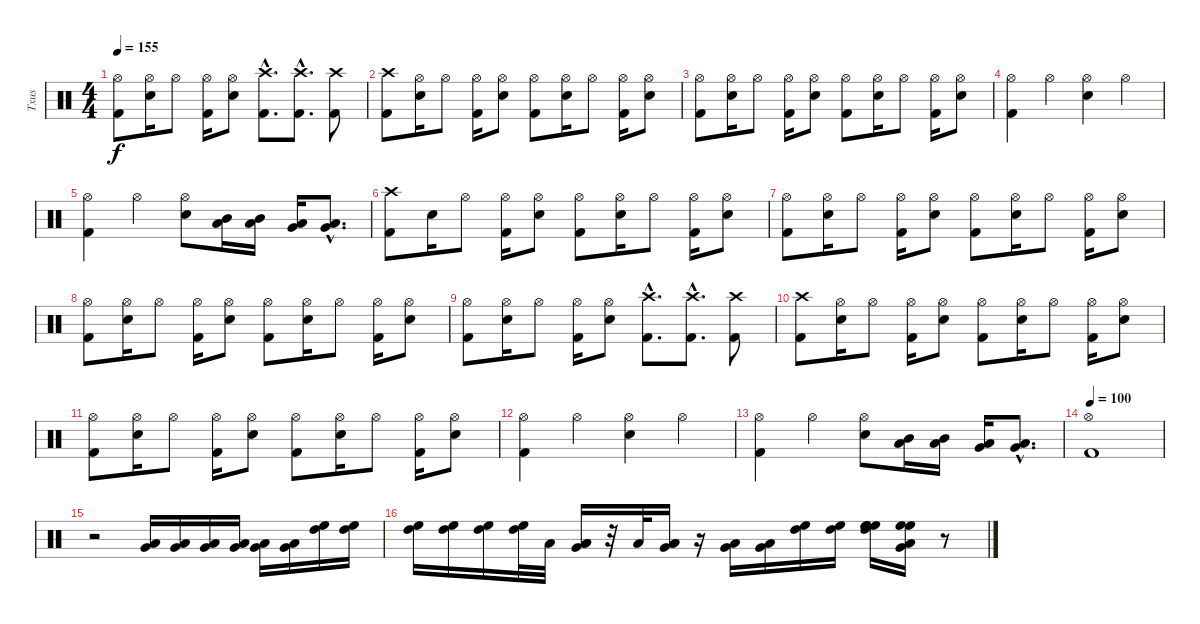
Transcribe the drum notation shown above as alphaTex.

\track ("Txus" "Txus") {instrument percussion}
\staff {score}
\articulation defaults
\ts (4 4)
\tempo 155
\clef neutral
\ks c
("Kick (hit) 2" "Hi-Hat (open)").8{dy f} ("Snare (hit) 2" "Hi-Hat (open)").16 "Hi-Hat (open)".8 ("Kick (hit) 2" "Hi-Hat (open)").16 ("Snare (hit) 2" "Hi-Hat (open)").8 ("Kick (hit) 2"{hac} "Crash high (hit)"{hac}).8{d} ("Kick (hit) 2"{hac} "Crash high (hit)"{hac}).8{d} ("Kick (hit) 2" "Crash high (hit)").8 |
("Kick (hit) 2" "Crash high (hit)").8 ("Snare (hit) 2" "Hi-Hat (open)").16 "Hi-Hat (open)".8 ("Kick (hit) 2" "Hi-Hat (open)").16 ("Snare (hit) 2" "Hi-Hat (open)").8 ("Kick (hit) 2" "Hi-Hat (open)").8 ("Snare (hit) 2" "Hi-Hat (open)").16 "Hi-Hat (open)".8 ("Kick (hit) 2" "Hi-Hat (open)").16 ("Snare (hit) 2" "Hi-Hat (open)").8 |
("Kick (hit) 2" "Hi-Hat (open)").8 ("Snare (hit) 2" "Hi-Hat (open)").16 "Hi-Hat (open)".8 ("Kick (hit) 2" "Hi-Hat (open)").16 ("Snare (hit) 2" "Hi-Hat (open)").8 ("Kick (hit) 2" "Hi-Hat (open)").8 ("Snare (hit) 2" "Hi-Hat (open)").16 "Hi-Hat (open)".8 ("Kick (hit) 2" "Hi-Hat (open)").16 ("Snare (hit) 2" "Hi-Hat (open)").8 |
("Kick (hit) 2" "Hi-Hat (open)").4 "Hi-Hat (open)".4 ("Snare (hit) 2" "Hi-Hat (open)").4 "Hi-Hat (open)".4 |
("Kick (hit) 2" "Hi-Hat (open)").4 "Hi-Hat (open)".4 ("Snare (hit) 2" "Hi-Hat (open)").8 ("Low Tom (hit)" "Mid Tom (hit)").16 ("Mid Tom (hit)" "Low Tom (hit)").16 ("Low Tom (hit)" "Very Low Tom (hit)").16 ("Very Low Tom (hit)"{hac} "Low Floor Tom (hit)"{hac}).8{d} |
("Kick (hit) 2" "Crash high (hit)").8 "Snare (hit) 2".16 "Hi-Hat (open)".8 ("Kick (hit) 2" "Hi-Hat (open)").16 ("Snare (hit) 2" "Hi-Hat (open)").8 ("Kick (hit) 2" "Hi-Hat (open)").8 ("Snare (hit) 2" "Hi-Hat (open)").16 "Hi-Hat (open)".8 ("Kick (hit) 2" "Hi-Hat (open)").16 ("Snare (hit) 2" "Hi-Hat (open)").8 |
("Kick (hit) 2" "Hi-Hat (open)").8 ("Snare (hit) 2" "Hi-Hat (open)").16 "Hi-Hat (open)".8 ("Kick (hit) 2" "Hi-Hat (open)").16 ("Snare (hit) 2" "Hi-Hat (open)").8 ("Kick (hit) 2" "Hi-Hat (open)").8 ("Snare (hit) 2" "Hi-Hat (open)").16 "Hi-Hat (open)".8 ("Kick (hit) 2" "Hi-Hat (open)").16 ("Snare (hit) 2" "Hi-Hat (open)").8 |
("Kick (hit) 2" "Hi-Hat (open)").8 ("Snare (hit) 2" "Hi-Hat (open)").16 "Hi-Hat (open)".8 ("Kick (hit) 2" "Hi-Hat (open)").16 ("Snare (hit) 2" "Hi-Hat (open)").8 ("Kick (hit) 2" "Hi-Hat (open)").8 ("Snare (hit) 2" "Hi-Hat (open)").16 "Hi-Hat (open)".8 ("Kick (hit) 2" "Hi-Hat (open)").16 ("Snare (hit) 2" "Hi-Hat (open)").8 |
("Kick (hit) 2" "Hi-Hat (open)").8 ("Snare (hit) 2" "Hi-Hat (open)").16 "Hi-Hat (open)".8 ("Kick (hit) 2" "Hi-Hat (open)").16 ("Snare (hit) 2" "Hi-Hat (open)").8 ("Kick (hit) 2"{hac} "Crash high (hit)"{hac}).8{d} ("Kick (hit) 2"{hac} "Crash high (hit)"{hac}).8{d} ("Kick (hit) 2" "Crash high (hit)").8 |
("Kick (hit) 2" "Crash high (hit)").8 ("Snare (hit) 2" "Hi-Hat (open)").16 "Hi-Hat (open)".8 ("Kick (hit) 2" "Hi-Hat (open)").16 ("Snare (hit) 2" "Hi-Hat (open)").8 ("Kick (hit) 2" "Hi-Hat (open)").8 ("Snare (hit) 2" "Hi-Hat (open)").16 "Hi-Hat (open)".8 ("Kick (hit) 2" "Hi-Hat (open)").16 ("Snare (hit) 2" "Hi-Hat (open)").8 |
("Kick (hit) 2" "Hi-Hat (open)").8 ("Snare (hit) 2" "Hi-Hat (open)").16 "Hi-Hat (open)".8 ("Kick (hit) 2" "Hi-Hat (open)").16 ("Snare (hit) 2" "Hi-Hat (open)").8 ("Kick (hit) 2" "Hi-Hat (open)").8 ("Snare (hit) 2" "Hi-Hat (open)").16 "Hi-Hat (open)".8 ("Kick (hit) 2" "Hi-Hat (open)").16 ("Snare (hit) 2" "Hi-Hat (open)").8 |
("Kick (hit) 2" "Hi-Hat (open)").4 "Hi-Hat (open)".4 ("Snare (hit) 2" "Hi-Hat (open)").4 "Hi-Hat (open)".4 |
("Kick (hit) 2" "Hi-Hat (open)").4 "Hi-Hat (open)".4 ("Snare (hit) 2" "Hi-Hat (open)").8 ("Low Tom (hit)" "Mid Tom (hit)").16 ("Mid Tom (hit)" "Low Tom (hit)").16 ("Low Tom (hit)" "Very Low Tom (hit)").16 ("Very Low Tom (hit)"{hac} "Low Floor Tom (hit)"{hac}).8{d} |
\tempo 100
("Kick (hit) 2" "Hi-Hat (open)").1 |
r.2 ("Very Low Tom (hit)" "Low Floor Tom (hit)").16 ("Very Low Tom (hit)" "Low Floor Tom (hit)").16 ("Very Low Tom (hit)" "Low Floor Tom (hit)").16 ("Very Low Tom (hit)" "Low Floor Tom (hit)").16 ("Very Low Tom (hit)" "Low Floor Tom (hit)").16 ("Very Low Tom (hit)" "Low Floor Tom (hit)").16 ("High Floor Tom (hit)" "High Tom (hit)").16 ("High Floor Tom (hit)" "High Tom (hit)").16 |
("High Floor Tom (hit)" "High Tom (hit)").16 ("High Floor Tom (hit)" "High Tom (hit)").16 ("High Floor Tom (hit)" "High Tom (hit)").16 ("High Floor Tom (hit)" "High Tom (hit)").32 "Low Floor Tom (hit)".32 ("Very Low Tom (hit)" "Low Floor Tom (hit)" "Low Floor Tom (hit)").16 r.32 "Low Floor Tom (hit)".32 ("Very Low Tom (hit)" "Low Floor Tom (hit)" "Low Floor Tom (hit)").16 r.16 ("Low Tom (hit)" "Very Low Tom (hit)").16 ("Low Tom (hit)" "Very Low Tom (hit)").16 ("High Floor Tom (hit)" "High Tom (hit)").16 ("High Floor Tom (hit)" "High Tom (hit)").16 ("High Floor Tom (hit)" "High Tom (hit)" "High Floor Tom (hit)" "High Floor Tom (hit)").16 ("Very Low Tom (hit)" "Low Floor Tom (hit)" "High Floor Tom (hit)" "High Floor Tom (hit)").16 r.8
